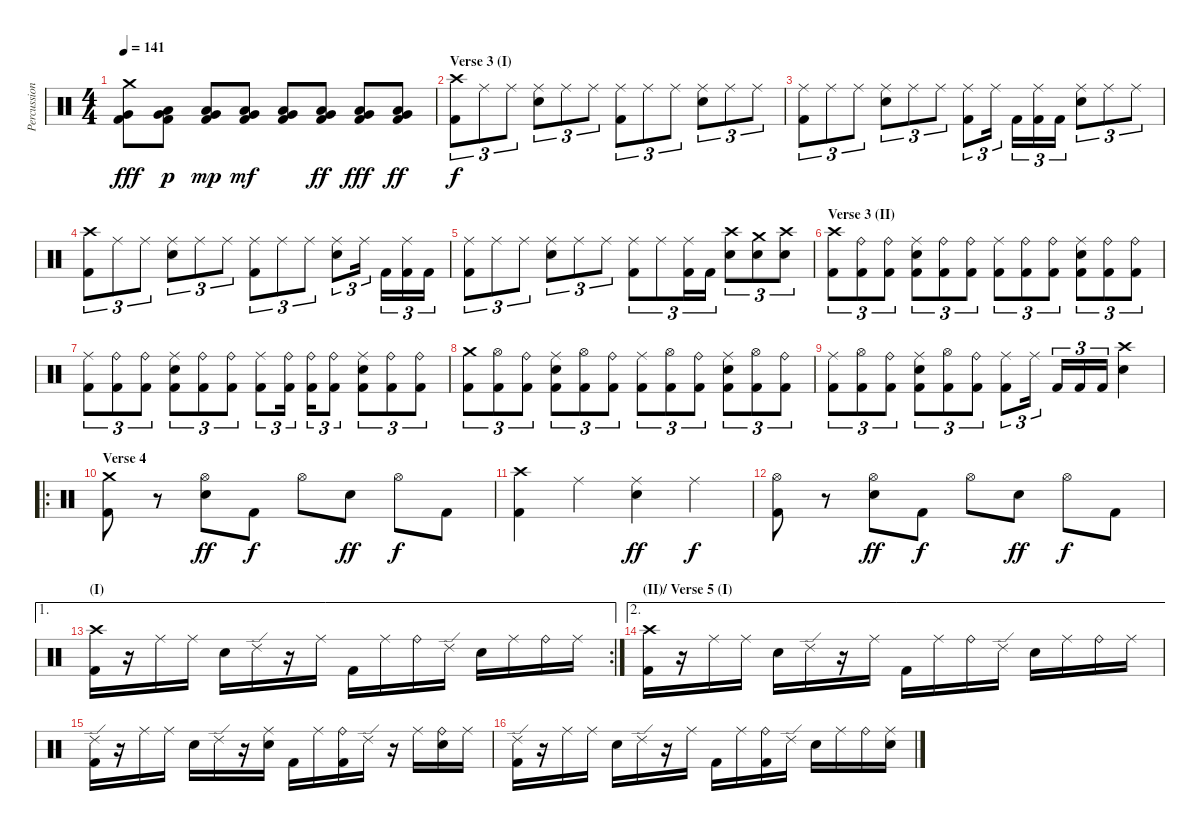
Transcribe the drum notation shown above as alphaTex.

\track ("Percussion" "Percussion") {instrument percussion}
\staff {score}
\articulation defaults
\ts (4 4)
\tempo 141
\clef neutral
\ks c
("Crash medium (hit)" "Very Low Tom (hit)" "Kick (hit) 2").8{dy fff} ("Low Tom (hit)" "Very Low Tom (hit)" "Kick (hit) 2").8{dy p} ("Low Tom (hit)" "Very Low Tom (hit)" "Kick (hit) 2").8{dy mp} ("Low Tom (hit)" "Very Low Tom (hit)" "Kick (hit) 2").8{dy mf} ("Low Tom (hit)" "Very Low Tom (hit)" "Kick (hit) 2").8 ("Low Tom (hit)" "Very Low Tom (hit)" "Kick (hit) 2").8{dy ff} ("Low Tom (hit)" "Very Low Tom (hit)" "Kick (hit) 2").8{dy fff} ("Low Tom (hit)" "Very Low Tom (hit)" "Kick (hit) 2").8{dy ff} |
\section ("" "Verse 3 (I)")
("Crash high (hit)" "Kick (hit) 2").8{tu (3 2) dy f} "Ride (middle)".8{tu (3 2)} "Ride (middle)".8{tu (3 2)} ("Ride (middle)" "Snare (hit) 2").8{tu (3 2)} "Ride (middle)".8{tu (3 2)} "Ride (middle)".8{tu (3 2)} ("Ride (middle)" "Kick (hit) 2").8{tu (3 2)} "Ride (middle)".8{tu (3 2)} "Ride (middle)".8{tu (3 2)} ("Ride (middle)" "Snare (hit) 2").8{tu (3 2)} "Ride (middle)".8{tu (3 2)} "Ride (middle)".8{tu (3 2)} |
("Ride (middle)" "Kick (hit) 2").8{tu (3 2)} "Ride (middle)".8{tu (3 2)} "Ride (middle)".8{tu (3 2)} ("Ride (middle)" "Snare (hit) 2").8{tu (3 2)} "Ride (middle)".8{tu (3 2)} "Ride (middle)".8{tu (3 2)} ("Ride (middle)" "Kick (hit) 2").8{tu (3 2)} "Ride (middle)".16{tu (3 2)} "Kick (hit) 2".16{tu (3 2)} ("Ride (middle)" "Kick (hit) 2").16{tu (3 2)} "Kick (hit) 2".16{tu (3 2)} ("Ride (middle)" "Snare (hit) 2").8{tu (3 2)} "Ride (middle)".8{tu (3 2)} "Ride (middle)".8{tu (3 2)} |
("Crash high (hit)" "Kick (hit) 2").8{tu (3 2)} "Ride (middle)".8{tu (3 2)} "Ride (middle)".8{tu (3 2)} ("Ride (middle)" "Snare (hit) 2").8{tu (3 2)} "Ride (middle)".8{tu (3 2)} "Ride (middle)".8{tu (3 2)} ("Ride (middle)" "Kick (hit) 2").8{tu (3 2)} "Ride (middle)".8{tu (3 2)} "Ride (middle)".8{tu (3 2)} ("Ride (middle)" "Snare (hit) 2").8{tu (3 2)} "Ride (middle)".16{tu (3 2)} "Kick (hit) 2".16{tu (3 2)} ("Ride (middle)" "Kick (hit) 2").16{tu (3 2)} "Kick (hit) 2".16{tu (3 2)} |
("Ride (middle)" "Kick (hit) 2").8{tu (3 2)} "Ride (middle)".8{tu (3 2)} "Ride (middle)".8{tu (3 2)} ("Ride (middle)" "Snare (hit) 2").8{tu (3 2)} "Ride (middle)".8{tu (3 2)} "Ride (middle)".8{tu (3 2)} ("Ride (middle)" "Kick (hit) 2").8{tu (3 2)} "Ride (middle)".8{tu (3 2)} ("Ride (middle)" "Kick (hit) 2").16{tu (3 2)} "Kick (hit) 2".16{tu (3 2)} ("Crash high (hit)" "Snare (hit) 2").8{tu (3 2)} ("Crash medium (hit)" "Snare (hit) 2").8{tu (3 2)} ("Crash high (hit)" "Snare (hit) 2").8{tu (3 2)} |
\section ("" "Verse 3 (II)")
("Crash high (hit)" "Kick (hit) 2").8{tu (3 2)} ("Ride (bell)" "Kick (hit) 2").8{tu (3 2)} ("Ride (bell)" "Kick (hit) 2").8{tu (3 2)} ("Ride (middle)" "Snare (hit) 2" "Kick (hit) 2").8{tu (3 2)} ("Ride (bell)" "Kick (hit) 2").8{tu (3 2)} ("Ride (bell)" "Kick (hit) 2").8{tu (3 2)} ("Ride (middle)" "Kick (hit) 2").8{tu (3 2)} ("Ride (bell)" "Kick (hit) 2").8{tu (3 2)} ("Ride (bell)" "Kick (hit) 2").8{tu (3 2)} ("Ride (middle)" "Snare (hit) 2" "Kick (hit) 2").8{tu (3 2)} ("Ride (bell)" "Kick (hit) 2").8{tu (3 2)} ("Ride (bell)" "Kick (hit) 2").8{tu (3 2)} |
("Ride (middle)" "Kick (hit) 2").8{tu (3 2)} ("Ride (bell)" "Kick (hit) 2").8{tu (3 2)} ("Ride (bell)" "Kick (hit) 2").8{tu (3 2)} ("Ride (middle)" "Snare (hit) 2" "Kick (hit) 2").8{tu (3 2)} ("Ride (bell)" "Kick (hit) 2").8{tu (3 2)} ("Ride (bell)" "Kick (hit) 2").8{tu (3 2)} ("Ride (middle)" "Kick (hit) 2").8{tu (3 2)} ("Ride (bell)" "Kick (hit) 2").16{tu (3 2)} ("Ride (bell)" "Kick (hit) 2").16{tu (3 2)} ("Ride (bell)" "Kick (hit) 2").8{tu (3 2)} ("Ride (middle)" "Snare (hit) 2" "Kick (hit) 2").8{tu (3 2)} ("Ride (bell)" "Kick (hit) 2").8{tu (3 2)} ("Ride (bell)" "Kick (hit) 2").8{tu (3 2)} |
("Crash medium (hit)" "Kick (hit) 2").8{tu (3 2)} ("Hi-Hat (open)" "Kick (hit) 2").8{tu (3 2)} ("Ride (bell)" "Kick (hit) 2").8{tu (3 2)} ("Ride (middle)" "Snare (hit) 2" "Kick (hit) 2").8{tu (3 2)} ("Hi-Hat (open)" "Kick (hit) 2").8{tu (3 2)} ("Ride (bell)" "Kick (hit) 2").8{tu (3 2)} ("Ride (middle)" "Kick (hit) 2").8{tu (3 2)} ("Hi-Hat (open)" "Kick (hit) 2").8{tu (3 2)} ("Ride (bell)" "Kick (hit) 2").8{tu (3 2)} ("Ride (middle)" "Snare (hit) 2" "Kick (hit) 2").8{tu (3 2)} ("Hi-Hat (open)" "Kick (hit) 2").8{tu (3 2)} ("Ride (bell)" "Kick (hit) 2").8{tu (3 2)} |
("Ride (middle)" "Kick (hit) 2").8{tu (3 2)} ("Hi-Hat (open)" "Kick (hit) 2").8{tu (3 2)} ("Ride (bell)" "Kick (hit) 2").8{tu (3 2)} ("Ride (middle)" "Snare (hit) 2" "Kick (hit) 2").8{tu (3 2)} ("Hi-Hat (open)" "Kick (hit) 2").8{tu (3 2)} ("Ride (bell)" "Kick (hit) 2").8{tu (3 2)} ("Ride (middle)" "Kick (hit) 2").8{tu (3 2)} "Ride (middle)".16{tu (3 2)} "Kick (hit) 2".16{tu (3 2)} "Kick (hit) 2".16{tu (3 2)} "Kick (hit) 2".16{tu (3 2)} ("Crash high (hit)" "Snare (hit) 2").4 |
\ro
\section ("" "Verse 4")
("Crash medium (hit)" "Kick (hit) 2").8 r.8 ("Hi-Hat (open)" "Electric Snare (hit)").8{dy ff} "Kick (hit) 2".8{dy f} "Hi-Hat (open)".8 "Electric Snare (hit)".8{dy ff} "Hi-Hat (open)".8{dy f} "Kick (hit) 2".8 |
("Crash high (hit)" "Kick (hit) 2").4 "Ride (middle)".4 ("Ride (middle)" "Electric Snare (hit)").4{dy ff} "Ride (middle)".4{dy f} |
("Hi-Hat (open)" "Kick (hit) 2").8 r.8 ("Hi-Hat (open)" "Electric Snare (hit)").8{dy ff} "Kick (hit) 2".8{dy f} "Hi-Hat (open)".8 "Electric Snare (hit)".8{dy ff} "Hi-Hat (open)".8{dy f} "Kick (hit) 2".8 |
\ae 1
\rc 2
\section ("" "(I)")
("Crash high (hit)" "Kick (hit) 2").16 r.16 "Ride (middle)".16 "Ride (middle)".16 "Snare (hit) 2".16 "Ride (edge) 2".16 r.16 "Ride (middle)".16 "Kick (hit) 2".16 "Ride (middle)".16 "Ride (bell)".16 "Ride (edge) 2".16 "Snare (hit) 2".16 "Ride (middle)".16 "Ride (bell)".16 "Ride (middle)".16 |
\ae 2
\section ("" "(II)/ Verse 5 (I)")
("Crash high (hit)" "Kick (hit) 2").16 r.16 "Ride (middle)".16 "Ride (middle)".16 "Snare (hit) 2".16 "Ride (edge) 2".16 r.16 "Ride (middle)".16 "Kick (hit) 2".16 "Ride (middle)".16 "Ride (bell)".16 "Ride (edge) 2".16 "Snare (hit) 2".16 "Ride (middle)".16 "Ride (bell)".16 "Ride (middle)".16 |
("Ride (edge) 2" "Kick (hit) 2").16 r.16 "Ride (middle)".16 "Ride (middle)".16 "Snare (hit) 2".16 "Ride (edge) 2".16 r.16 ("Ride (middle)" "Snare (hit) 2").16 "Kick (hit) 2".16 "Ride (middle)".16 ("Ride (bell)" "Kick (hit) 2").16 "Ride (edge) 2".16 r.16 "Ride (middle)".16 ("Ride (bell)" "Snare (hit) 2").16 "Ride (middle)".16 |
("Ride (edge) 2" "Kick (hit) 2").16 r.16 "Ride (middle)".16 "Ride (middle)".16 "Snare (hit) 2".16 "Ride (edge) 2".16 r.16 "Ride (middle)".16 "Kick (hit) 2".16 "Ride (middle)".16 ("Ride (bell)" "Kick (hit) 2").16 "Ride (edge) 2".16 "Snare (hit) 2".16 "Ride (middle)".16 "Ride (bell)".16 ("Ride (middle)" "Snare (hit) 2").16
